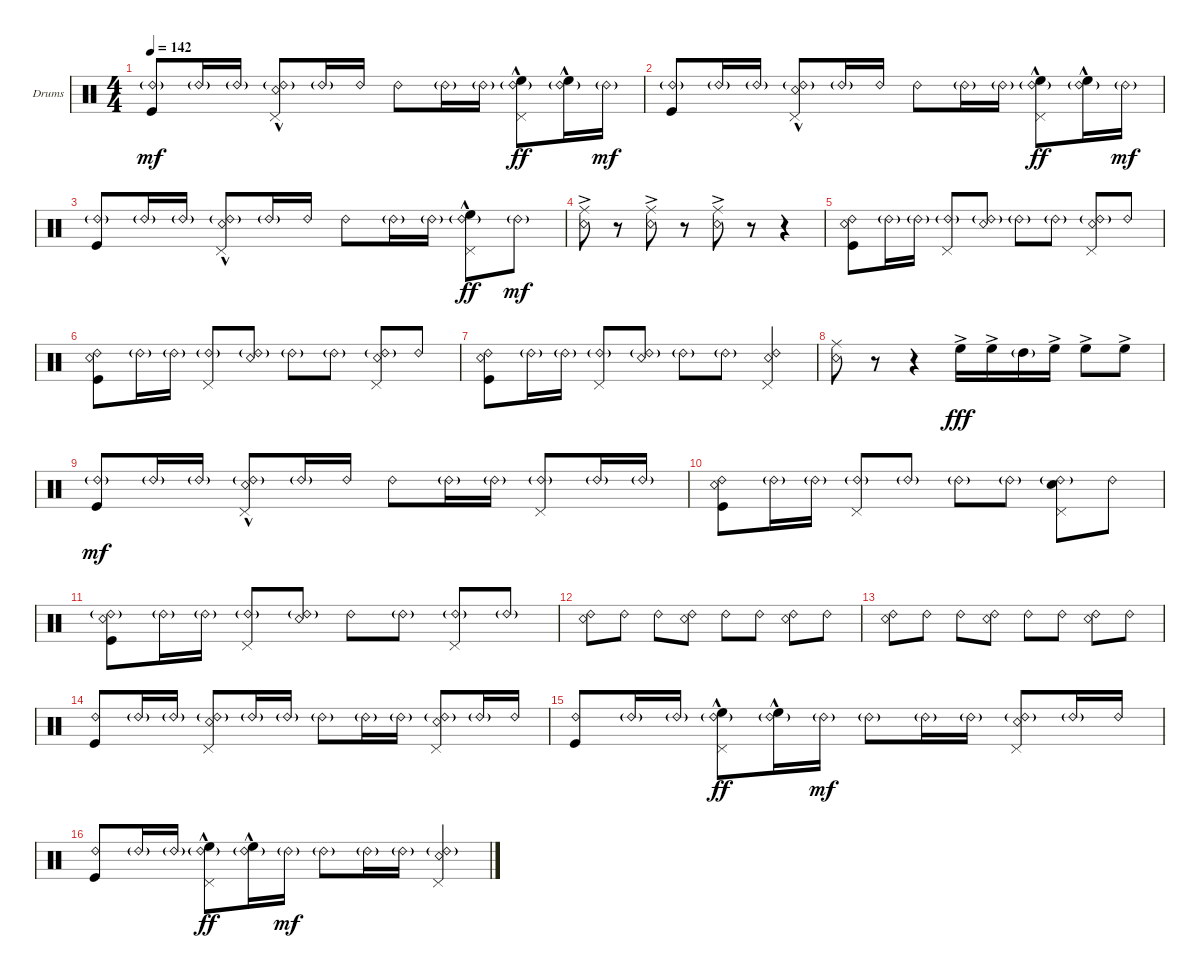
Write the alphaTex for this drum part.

\defaultSystemsLayout 4
\bracketExtendMode groupsimilarinstruments
\firstSystemTrackNameOrientation horizontal
\otherSystemsTrackNameOrientation horizontal
\track ("Drums" "Drums") {instrument percussion}
\staff {score}
\articulation defaults
\ts (4 4)
\tempo 142
\clef neutral
\scale
0.333333
\ks c
("Ride (bell) 2"{g} "Kick (hit)").8{dy mf} "Ride (bell) 2"{g}.16 "Ride (bell) 2"{g}.16 ("Ride (bell) 2"{g} "Snare (rim shot)"{hac} "Pedal Hi-Hat (hit)").8 "Ride (bell) 2"{g}.16 "Ride (bell) 2".16 "Ride (bell) 2".8 "Ride (bell) 2"{g}.16 "Ride (bell) 2"{g}.16 ("Ride (bell) 2"{g} "High Floor Tom (hit)"{hac} "Pedal Hi-Hat (hit)").8{dy ff} ("Ride (bell) 2"{g} "High Floor Tom (hit)"{hac}).16 "Ride (bell) 2"{g}.16{dy mf} |
\scale
0.333333 ("Ride (bell) 2"{g} "Kick (hit)").8 "Ride (bell) 2"{g}.16 "Ride (bell) 2"{g}.16 ("Ride (bell) 2"{g} "Snare (rim shot)"{hac} "Pedal Hi-Hat (hit)").8 "Ride (bell) 2"{g}.16 "Ride (bell) 2".16 "Ride (bell) 2".8 "Ride (bell) 2"{g}.16 "Ride (bell) 2"{g}.16 ("Ride (bell) 2"{g} "High Floor Tom (hit)"{hac} "Pedal Hi-Hat (hit)").8{dy ff} ("Ride (bell) 2"{g} "High Floor Tom (hit)"{hac}).16 "Ride (bell) 2"{g}.16{dy mf} |
\scale
0.333333 ("Ride (bell) 2"{g} "Kick (hit)").8 "Ride (bell) 2"{g}.16 "Ride (bell) 2"{g}.16 ("Ride (bell) 2"{g} "Snare (rim shot)"{hac} "Pedal Hi-Hat (hit)").8 "Ride (bell) 2"{g}.16 "Ride (bell) 2".16 "Ride (bell) 2".8 "Ride (bell) 2"{g}.16 "Ride (bell) 2"{g}.16 ("Ride (bell) 2"{g} "High Floor Tom (hit)"{hac} "Pedal Hi-Hat (hit)").8{dy ff} "Ride (bell) 2"{g}.8{dy mf} |
\scale
0.333333 ("Snare (rim shot)"{ac} "Ride (middle)"{ac}).8 r.8 ("Snare (rim shot)"{ac} "Ride (middle)"{ac}).8 r.8 ("Snare (rim shot)"{ac} "Ride (middle)"{ac}).8 r.8 r.4 |
\scale
0.333333 ("Ride (bell) 2" "Kick (hit)" "Snare (rim shot)").8 "Ride (bell) 2"{g}.16 "Ride (bell) 2"{g}.16 ("Ride (bell) 2"{g} "Pedal Hi-Hat (hit)").8 ("Ride (bell) 2"{g} "Snare (rim shot)").8 "Ride (bell) 2"{g}.8 "Ride (bell) 2"{g}.8 ("Ride (bell) 2"{g} "Snare (rim shot)" "Pedal Hi-Hat (hit)").8 "Ride (bell) 2".8 |
\scale
0.333333 ("Ride (bell) 2" "Kick (hit)" "Snare (rim shot)").8 "Ride (bell) 2"{g}.16 "Ride (bell) 2"{g}.16 ("Ride (bell) 2"{g} "Pedal Hi-Hat (hit)").8 ("Ride (bell) 2"{g} "Snare (rim shot)").8 "Ride (bell) 2"{g}.8 "Ride (bell) 2"{g}.8 ("Ride (bell) 2"{g} "Snare (rim shot)" "Pedal Hi-Hat (hit)").8 "Ride (bell) 2".8 |
\scale
0.333333 ("Ride (bell) 2" "Kick (hit)" "Snare (rim shot)").8 "Ride (bell) 2"{g}.16 "Ride (bell) 2"{g}.16 ("Ride (bell) 2"{g} "Pedal Hi-Hat (hit)").8 ("Ride (bell) 2"{g} "Snare (rim shot)").8 "Ride (bell) 2"{g}.8 "Ride (bell) 2"{g}.8 ("Ride (bell) 2" "Snare (rim shot)" "Pedal Hi-Hat (hit)").4 |
\scale
0.333333 ("Snare (rim shot)" "Ride (middle)").8 r.8 r.4 "High Floor Tom (hit)"{ac}.16{dy fff} "High Floor Tom (hit)"{ac}.16 "High Tom (hit)"{g}.16 "High Floor Tom (hit)"{ac}.16 "High Floor Tom (hit)"{ac}.8 "High Floor Tom (hit)"{ac}.8 |
\scale
0.333333 ("Ride (bell) 2"{g} "Kick (hit)").8{dy mf} "Ride (bell) 2"{g}.16 "Ride (bell) 2"{g}.16 ("Ride (bell) 2"{g} "Snare (rim shot)"{hac} "Pedal Hi-Hat (hit)").8 "Ride (bell) 2"{g}.16 "Ride (bell) 2".16 "Ride (bell) 2".8 "Ride (bell) 2"{g}.16 "Ride (bell) 2"{g}.16 ("Ride (bell) 2"{g} "Pedal Hi-Hat (hit)").8 "Ride (bell) 2"{g}.16 "Ride (bell) 2"{g}.16 |
\scale
0.333333 ("Ride (bell) 2" "Kick (hit)" "Snare (rim shot)").8 "Ride (bell) 2"{g}.16 "Ride (bell) 2"{g}.16 ("Ride (bell) 2"{g} "Pedal Hi-Hat (hit)").8 "Ride (bell) 2"{g}.8 "Ride (bell) 2"{g}.8 "Ride (bell) 2"{g}.8 ("Ride (bell) 2"{g} "Pedal Hi-Hat (hit)" "Snare (hit) 2").8 "Ride (bell) 2".8 |
\scale
0.333333 ("Ride (bell) 2"{g} "Kick (hit)" "Snare (rim shot)").8 "Ride (bell) 2"{g}.16 "Ride (bell) 2"{g}.16 ("Ride (bell) 2"{g} "Pedal Hi-Hat (hit)").8 ("Ride (bell) 2"{g} "Snare (rim shot)").8 "Ride (bell) 2".8 "Ride (bell) 2"{g}.8 ("Ride (bell) 2"{g} "Pedal Hi-Hat (hit)").8 "Ride (bell) 2"{g}.8 |
\scale
0.333333 ("Ride (bell) 2" "Snare (rim shot)").8 "Ride (bell) 2".8 "Ride (bell) 2".8 ("Ride (bell) 2" "Snare (rim shot)").8 "Ride (bell) 2".8 "Ride (bell) 2".8 ("Ride (bell) 2" "Snare (rim shot)").8 "Ride (bell) 2".8 |
\scale
0.333333 ("Ride (bell) 2" "Snare (rim shot)").8 "Ride (bell) 2".8 "Ride (bell) 2".8 ("Ride (bell) 2" "Snare (rim shot)").8 "Ride (bell) 2".8 "Ride (bell) 2".8 ("Ride (bell) 2" "Snare (rim shot)").8 "Ride (bell) 2".8 |
\scale
0.333333 ("Ride (bell) 2" "Kick (hit)").8 "Ride (bell) 2"{g}.16 "Ride (bell) 2"{g}.16 ("Ride (bell) 2"{g} "Snare (rim shot)" "Pedal Hi-Hat (hit)").8 "Ride (bell) 2"{g}.16 "Ride (bell) 2"{g}.16 "Ride (bell) 2"{g}.8 "Ride (bell) 2"{g}.16 "Ride (bell) 2"{g}.16 ("Ride (bell) 2"{g} "Snare (rim shot)" "Pedal Hi-Hat (hit)").8 "Ride (bell) 2"{g}.16 "Ride (bell) 2".16 |
\scale
0.333333 ("Ride (bell) 2" "Kick (hit)").8 "Ride (bell) 2"{g}.16 "Ride (bell) 2"{g}.16 ("Ride (bell) 2"{g} "High Floor Tom (hit)"{hac} "Pedal Hi-Hat (hit)").8{dy ff} ("Ride (bell) 2"{g} "High Floor Tom (hit)"{hac}).16 "Ride (bell) 2"{g}.16{dy mf} "Ride (bell) 2"{g}.8 "Ride (bell) 2"{g}.16 "Ride (bell) 2"{g}.16 ("Ride (bell) 2"{g} "Snare (rim shot)" "Pedal Hi-Hat (hit)").8 "Ride (bell) 2"{g}.16 "Ride (bell) 2".16 |
\scale
0.333333 ("Ride (bell) 2" "Kick (hit)").8 "Ride (bell) 2"{g}.16 "Ride (bell) 2"{g}.16 ("Ride (bell) 2"{g} "High Floor Tom (hit)"{hac} "Pedal Hi-Hat (hit)").8{dy ff} ("Ride (bell) 2"{g} "High Floor Tom (hit)"{hac}).16 "Ride (bell) 2"{g}.16{dy mf} "Ride (bell) 2"{g}.8 "Ride (bell) 2"{g}.16 "Ride (bell) 2"{g}.16 ("Ride (bell) 2"{g} "Snare (rim shot)" "Pedal Hi-Hat (hit)").4
